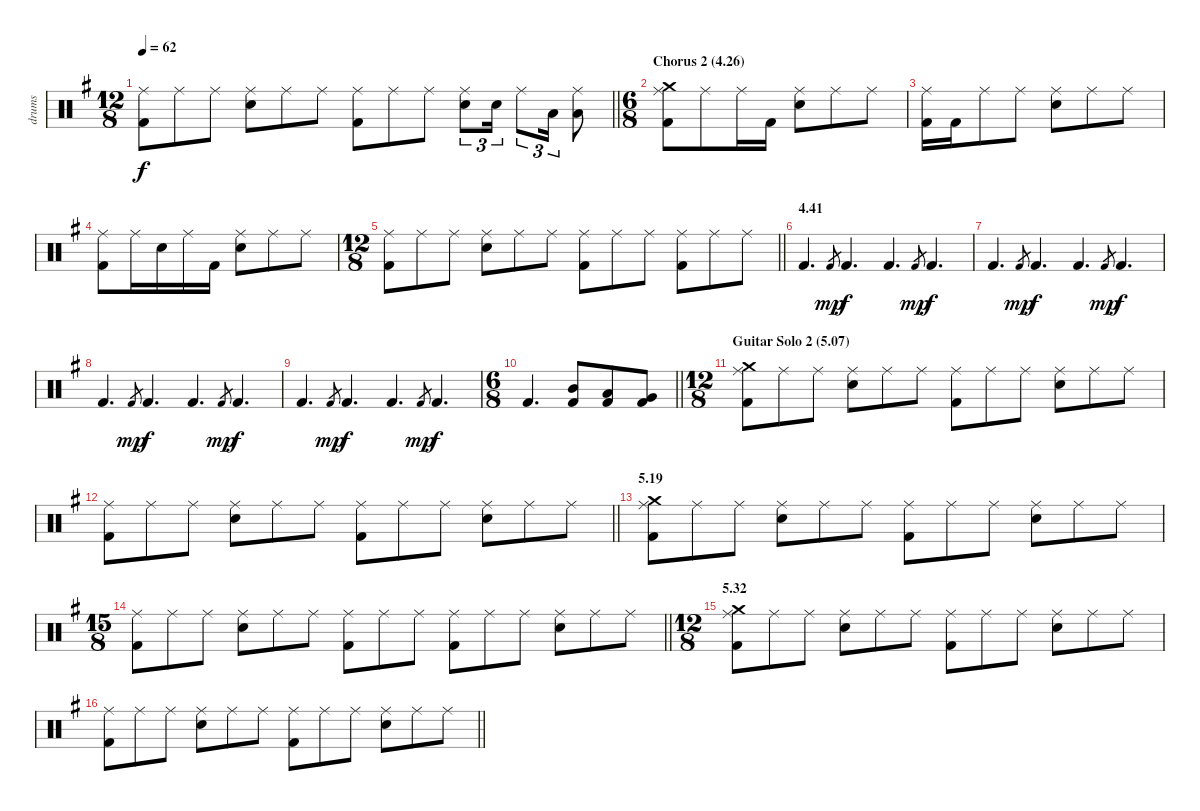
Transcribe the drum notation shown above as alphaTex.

\track ("drums" "drums") {instrument percussion}
\staff {score}
\articulation defaults
\ts (12 8)
\tempo 62
\clef neutral
\barLineRight lightlight
\ks g
("Ride (middle)" "Kick (hit) 2").8{dy f} "Ride (middle)".8 "Ride (middle)".8 ("Ride (middle)" "Electric Snare (hit)").8 "Ride (middle)".8 "Ride (middle)".8 ("Ride (middle)" "Kick (hit) 2").8 "Ride (middle)".8 "Ride (middle)".8 ("Ride (middle)" "Electric Snare (hit)").8{tu (3 2)} "Electric Snare (hit)".16{tu (3 2)} "Ride (middle)".8{tu (3 2)} "Low Tom (hit)".16{tu (3 2)} ("Ride (middle)" "Low Tom (hit)").8 |
\ts (6 8)
\section ("" "Chorus 2 (4.26)")
("Ride (middle)" "Crash medium (hit)" "Kick (hit) 2").8 "Ride (middle)".8 "Ride (middle)".16 "Kick (hit) 2".16 ("Ride (middle)" "Electric Snare (hit)").8 "Ride (middle)".8 "Ride (middle)".8 |
("Ride (middle)" "Kick (hit) 2").16 "Kick (hit) 2".16 "Ride (middle)".8 "Ride (middle)".8 ("Ride (middle)" "Electric Snare (hit)").8 "Ride (middle)".8 "Ride (middle)".8 |
("Ride (middle)" "Kick (hit) 2").8 "Ride (middle)".16 "Electric Snare (hit)".16 "Ride (middle)".16 "Kick (hit) 2".16 ("Ride (middle)" "Electric Snare (hit)").8 "Ride (middle)".8 "Ride (middle)".8 |
\ts (12 8)
\barLineRight lightlight
("Ride (middle)" "Kick (hit) 2").8 "Ride (middle)".8 "Ride (middle)".8 ("Ride (middle)" "Electric Snare (hit)").8 "Ride (middle)".8 "Ride (middle)".8 ("Ride (middle)" "Kick (hit) 2").8 "Ride (middle)".8 "Ride (middle)".8 ("Ride (middle)" "Kick (hit) 2").8 "Ride (middle)".8 "Ride (middle)".8 |
\section ("" "4.41")
"Kick (hit) 2".4{d} "Kick (hit) 2".8{gr dy mp} "Kick (hit) 2".4{d dy f} "Kick (hit) 2".4{d} "Kick (hit) 2".8{gr dy mp} "Kick (hit) 2".4{d dy f} |
"Kick (hit) 2".4{d} "Kick (hit) 2".8{gr dy mp} "Kick (hit) 2".4{d dy f} "Kick (hit) 2".4{d} "Kick (hit) 2".8{gr dy mp} "Kick (hit) 2".4{d dy f} |
"Kick (hit) 2".4{d} "Kick (hit) 2".8{gr dy mp} "Kick (hit) 2".4{d dy f} "Kick (hit) 2".4{d} "Kick (hit) 2".8{gr dy mp} "Kick (hit) 2".4{d dy f} |
"Kick (hit) 2".4{d} "Kick (hit) 2".8{gr dy mp} "Kick (hit) 2".4{d dy f} "Kick (hit) 2".4{d} "Kick (hit) 2".8{gr dy mp} "Kick (hit) 2".4{d dy f} |
\ts (6 8)
\barLineRight lightlight "Kick (hit) 2".4{d}
("Mid Tom (hit)" "Kick (hit) 2").8 ("Low Tom (hit)" "Kick (hit) 2").8 ("Very Low Tom (hit)" "Kick (hit) 2").8 |
\ts (12 8)
\section ("" "Guitar Solo 2 (5.07)")
("Ride (middle)" "Crash medium (hit)" "Kick (hit) 2").8 "Ride (middle)".8 "Ride (middle)".8 ("Ride (middle)" "Electric Snare (hit)").8 "Ride (middle)".8 "Ride (middle)".8 ("Ride (middle)" "Kick (hit) 2").8 "Ride (middle)".8 "Ride (middle)".8 ("Ride (middle)" "Electric Snare (hit)").8 "Ride (middle)".8 "Ride (middle)".8 |
\barLineRight lightlight
("Ride (middle)" "Kick (hit) 2").8 "Ride (middle)".8 "Ride (middle)".8 ("Ride (middle)" "Electric Snare (hit)").8 "Ride (middle)".8 "Ride (middle)".8 ("Ride (middle)" "Kick (hit) 2").8 "Ride (middle)".8 "Ride (middle)".8 ("Ride (middle)" "Electric Snare (hit)").8 "Ride (middle)".8 "Ride (middle)".8 |
\section ("" "5.19")
("Ride (middle)" "Crash medium (hit)" "Kick (hit) 2").8 "Ride (middle)".8 "Ride (middle)".8 ("Ride (middle)" "Electric Snare (hit)").8 "Ride (middle)".8 "Ride (middle)".8 ("Ride (middle)" "Kick (hit) 2").8 "Ride (middle)".8 "Ride (middle)".8 ("Ride (middle)" "Electric Snare (hit)").8 "Ride (middle)".8 "Ride (middle)".8 |
\ts (15 8)
\barLineRight lightlight
("Ride (middle)" "Kick (hit) 2").8 "Ride (middle)".8 "Ride (middle)".8 ("Ride (middle)" "Electric Snare (hit)").8 "Ride (middle)".8 "Ride (middle)".8 ("Ride (middle)" "Kick (hit) 2").8 "Ride (middle)".8 "Ride (middle)".8 ("Ride (middle)" "Kick (hit) 2").8 "Ride (middle)".8 "Ride (middle)".8 ("Ride (middle)" "Electric Snare (hit)").8 "Ride (middle)".8 "Ride (middle)".8 |
\ts (12 8)
\section ("" "5.32")
("Ride (middle)" "Crash medium (hit)" "Kick (hit) 2").8 "Ride (middle)".8 "Ride (middle)".8 ("Ride (middle)" "Electric Snare (hit)").8 "Ride (middle)".8 "Ride (middle)".8 ("Ride (middle)" "Kick (hit) 2").8 "Ride (middle)".8 "Ride (middle)".8 ("Ride (middle)" "Electric Snare (hit)").8 "Ride (middle)".8 "Ride (middle)".8 |
\barLineRight lightlight
("Ride (middle)" "Kick (hit) 2").8 "Ride (middle)".8 "Ride (middle)".8 ("Ride (middle)" "Electric Snare (hit)").8 "Ride (middle)".8 "Ride (middle)".8 ("Ride (middle)" "Kick (hit) 2").8 "Ride (middle)".8 "Ride (middle)".8 ("Ride (middle)" "Electric Snare (hit)").8 "Ride (middle)".8 "Ride (middle)".8
